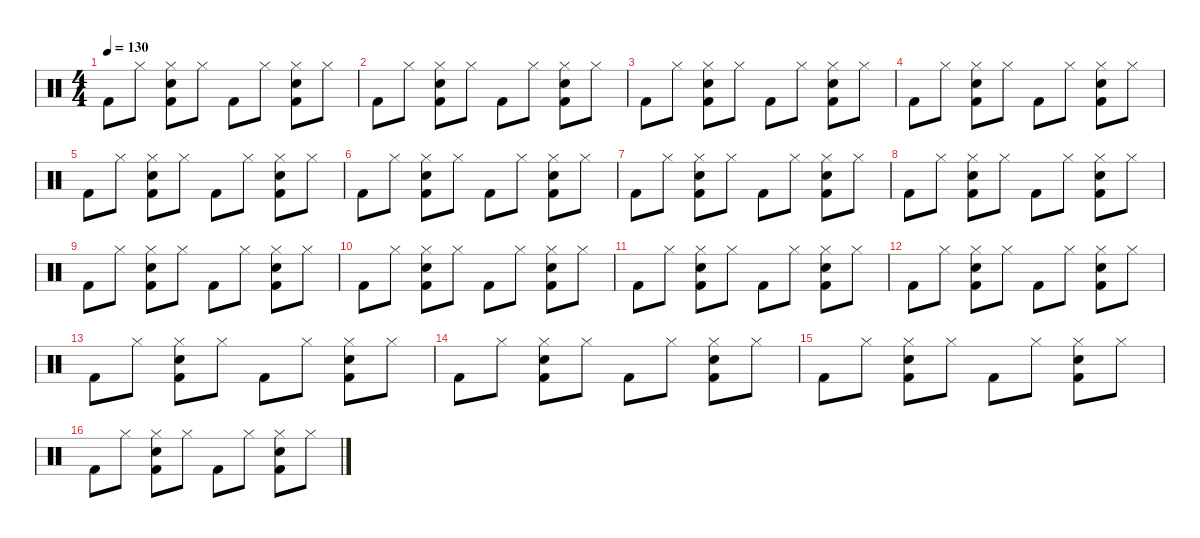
\defaultSystemsLayout 4
\hideDynamics
\bracketExtendMode nobrackets
\singleTrackTrackNamePolicy hidden
\multiTrackTrackNamePolicy hidden
\otherSystemsTrackNameOrientation horizontal
\track ("Percussion" "drm.") {defaultSystemsLayout 4 instrument percussion}
\staff {score}
\articulation defaults
\ts (4 4)
\tempo 130
\clef neutral
\ks c "Kick (hit) 2".8{dy f beam Down} "Hi-Hat (closed)".8{beam Down}
("Hi-Hat (closed)" "Snare (hit) 2" "Kick (hit) 2").8{beam Down} "Hi-Hat (closed)".8{beam Down} "Kick (hit) 2".8{beam Down} "Hi-Hat (closed)".8{beam Down} ("Hi-Hat (closed)" "Snare (hit) 2" "Kick (hit) 2").8{beam Down} "Hi-Hat (closed)".8{beam Down} |
"Kick (hit) 2".8{beam Down} "Hi-Hat (closed)".8{beam Down} ("Hi-Hat (closed)" "Snare (hit) 2" "Kick (hit) 2").8{beam Down} "Hi-Hat (closed)".8{beam Down} "Kick (hit) 2".8{beam Down} "Hi-Hat (closed)".8{beam Down} ("Hi-Hat (closed)" "Snare (hit) 2" "Kick (hit) 2").8{beam Down} "Hi-Hat (closed)".8{beam Down} |
"Kick (hit) 2".8{beam Down} "Hi-Hat (closed)".8{beam Down} ("Hi-Hat (closed)" "Snare (hit) 2" "Kick (hit) 2").8{beam Down} "Hi-Hat (closed)".8{beam Down} "Kick (hit) 2".8{beam Down} "Hi-Hat (closed)".8{beam Down} ("Hi-Hat (closed)" "Snare (hit) 2" "Kick (hit) 2").8{beam Down} "Hi-Hat (closed)".8{beam Down} |
"Kick (hit) 2".8{beam Down} "Hi-Hat (closed)".8{beam Down} ("Hi-Hat (closed)" "Snare (hit) 2" "Kick (hit) 2").8{beam Down} "Hi-Hat (closed)".8{beam Down} "Kick (hit) 2".8{beam Down} "Hi-Hat (closed)".8{beam Down} ("Hi-Hat (closed)" "Snare (hit) 2" "Kick (hit) 2").8{beam Down} "Hi-Hat (closed)".8{beam Down} |
"Kick (hit) 2".8{beam Down} "Hi-Hat (closed)".8{beam Down} ("Hi-Hat (closed)" "Snare (hit) 2" "Kick (hit) 2").8{beam Down} "Hi-Hat (closed)".8{beam Down} "Kick (hit) 2".8{beam Down} "Hi-Hat (closed)".8{beam Down} ("Hi-Hat (closed)" "Snare (hit) 2" "Kick (hit) 2").8{beam Down} "Hi-Hat (closed)".8{beam Down} |
"Kick (hit) 2".8{beam Down} "Hi-Hat (closed)".8{beam Down} ("Hi-Hat (closed)" "Snare (hit) 2" "Kick (hit) 2").8{beam Down} "Hi-Hat (closed)".8{beam Down} "Kick (hit) 2".8{beam Down} "Hi-Hat (closed)".8{beam Down} ("Hi-Hat (closed)" "Snare (hit) 2" "Kick (hit) 2").8{beam Down} "Hi-Hat (closed)".8{beam Down} |
"Kick (hit) 2".8{beam Down} "Hi-Hat (closed)".8{beam Down} ("Hi-Hat (closed)" "Snare (hit) 2" "Kick (hit) 2").8{beam Down} "Hi-Hat (closed)".8{beam Down} "Kick (hit) 2".8{beam Down} "Hi-Hat (closed)".8{beam Down} ("Hi-Hat (closed)" "Snare (hit) 2" "Kick (hit) 2").8{beam Down} "Hi-Hat (closed)".8{beam Down} |
"Kick (hit) 2".8{beam Down} "Hi-Hat (closed)".8{beam Down} ("Hi-Hat (closed)" "Snare (hit) 2" "Kick (hit) 2").8{beam Down} "Hi-Hat (closed)".8{beam Down} "Kick (hit) 2".8{beam Down} "Hi-Hat (closed)".8{beam Down} ("Hi-Hat (closed)" "Snare (hit) 2" "Kick (hit) 2").8{beam Down} "Hi-Hat (closed)".8{beam Down} |
"Kick (hit) 2".8{beam Down} "Hi-Hat (closed)".8{beam Down} ("Hi-Hat (closed)" "Snare (hit) 2" "Kick (hit) 2").8{beam Down} "Hi-Hat (closed)".8{beam Down} "Kick (hit) 2".8{beam Down} "Hi-Hat (closed)".8{beam Down} ("Hi-Hat (closed)" "Snare (hit) 2" "Kick (hit) 2").8{beam Down} "Hi-Hat (closed)".8{beam Down} |
"Kick (hit) 2".8{beam Down} "Hi-Hat (closed)".8{beam Down} ("Hi-Hat (closed)" "Snare (hit) 2" "Kick (hit) 2").8{beam Down} "Hi-Hat (closed)".8{beam Down} "Kick (hit) 2".8{beam Down} "Hi-Hat (closed)".8{beam Down} ("Hi-Hat (closed)" "Snare (hit) 2" "Kick (hit) 2").8{beam Down} "Hi-Hat (closed)".8{beam Down} |
"Kick (hit) 2".8{beam Down} "Hi-Hat (closed)".8{beam Down} ("Hi-Hat (closed)" "Snare (hit) 2" "Kick (hit) 2").8{beam Down} "Hi-Hat (closed)".8{beam Down} "Kick (hit) 2".8{beam Down} "Hi-Hat (closed)".8{beam Down} ("Hi-Hat (closed)" "Snare (hit) 2" "Kick (hit) 2").8{beam Down} "Hi-Hat (closed)".8{beam Down} |
"Kick (hit) 2".8{beam Down} "Hi-Hat (closed)".8{beam Down} ("Hi-Hat (closed)" "Snare (hit) 2" "Kick (hit) 2").8{beam Down} "Hi-Hat (closed)".8{beam Down} "Kick (hit) 2".8{beam Down} "Hi-Hat (closed)".8{beam Down} ("Hi-Hat (closed)" "Snare (hit) 2" "Kick (hit) 2").8{beam Down} "Hi-Hat (closed)".8{beam Down} |
"Kick (hit) 2".8{beam Down} "Hi-Hat (closed)".8{beam Down} ("Hi-Hat (closed)" "Snare (hit) 2" "Kick (hit) 2").8{beam Down} "Hi-Hat (closed)".8{beam Down} "Kick (hit) 2".8{beam Down} "Hi-Hat (closed)".8{beam Down} ("Hi-Hat (closed)" "Snare (hit) 2" "Kick (hit) 2").8{beam Down} "Hi-Hat (closed)".8{beam Down} |
"Kick (hit) 2".8{beam Down} "Hi-Hat (closed)".8{beam Down} ("Hi-Hat (closed)" "Snare (hit) 2" "Kick (hit) 2").8{beam Down} "Hi-Hat (closed)".8{beam Down} "Kick (hit) 2".8{beam Down} "Hi-Hat (closed)".8{beam Down} ("Hi-Hat (closed)" "Snare (hit) 2" "Kick (hit) 2").8{beam Down} "Hi-Hat (closed)".8{beam Down} |
"Kick (hit) 2".8{beam Down} "Hi-Hat (closed)".8{beam Down} ("Hi-Hat (closed)" "Snare (hit) 2" "Kick (hit) 2").8{beam Down} "Hi-Hat (closed)".8{beam Down} "Kick (hit) 2".8{beam Down} "Hi-Hat (closed)".8{beam Down} ("Hi-Hat (closed)" "Snare (hit) 2" "Kick (hit) 2").8{beam Down} "Hi-Hat (closed)".8{beam Down} |
"Kick (hit) 2".8{beam Down} "Hi-Hat (closed)".8{beam Down} ("Hi-Hat (closed)" "Snare (hit) 2" "Kick (hit) 2").8{beam Down} "Hi-Hat (closed)".8{beam Down} "Kick (hit) 2".8{beam Down} "Hi-Hat (closed)".8{beam Down} ("Hi-Hat (closed)" "Snare (hit) 2" "Kick (hit) 2").8{beam Down} "Hi-Hat (closed)".8{beam Down}
